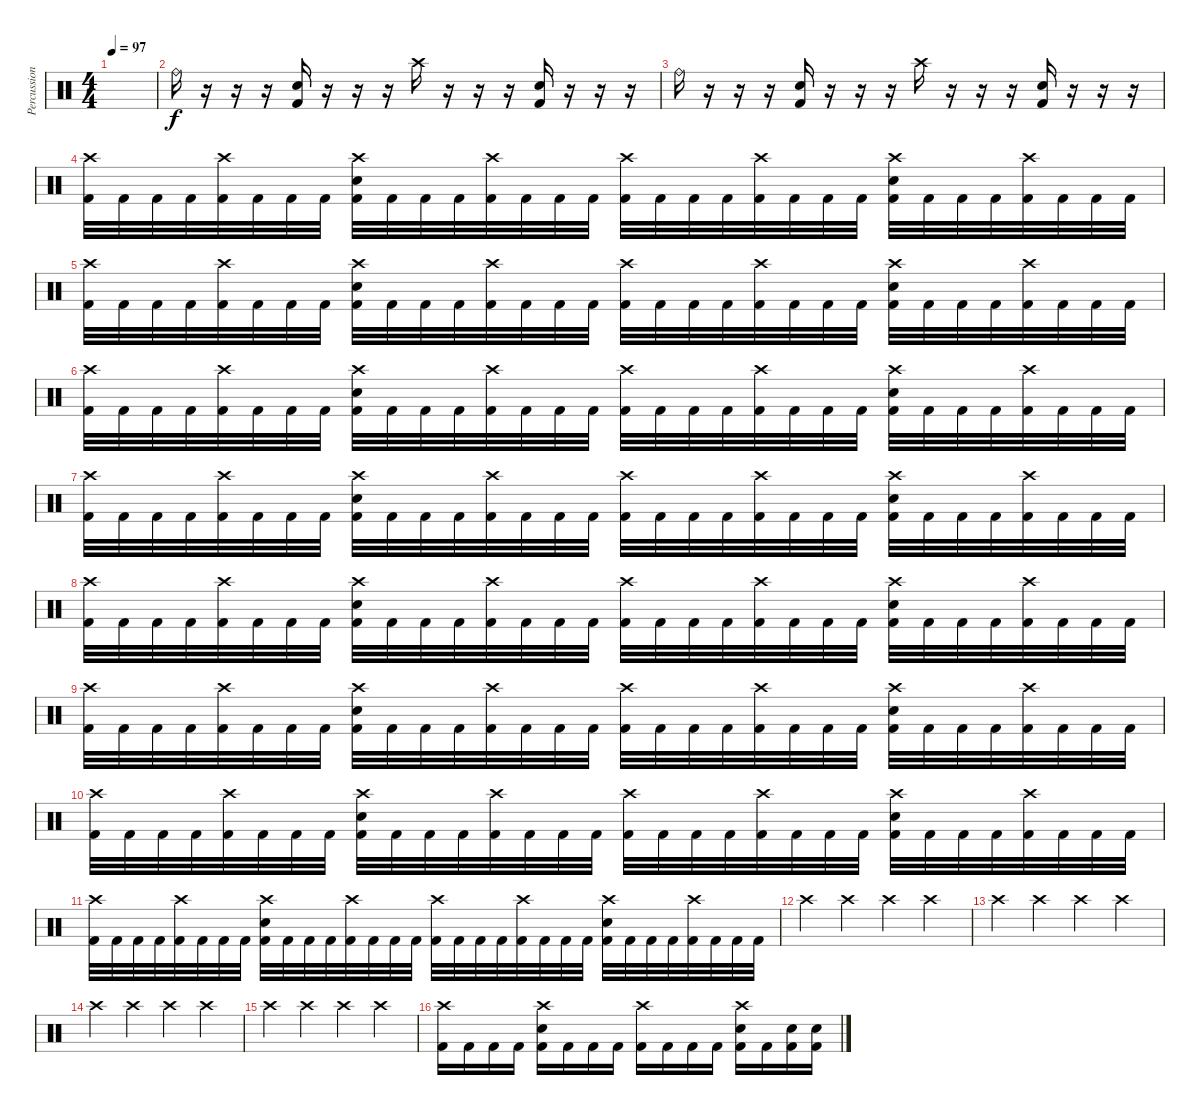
\track ("Percussion" "Percussion") {instrument percussion}
\staff {score}
\articulation defaults
\ts (4 4)
\tempo 97
\clef neutral
\ks c
|
"Ride (bell)".16 r.16 r.16 r.16 ("Snare (hit) 2" "Kick (hit) 2").16 r.16 r.16 r.16 "Crash high (hit)".16 r.16 r.16 r.16 ("Snare (hit) 2" "Kick (hit) 2").16 r.16 r.16 r.16 |
"Ride (bell)".16 r.16 r.16 r.16 ("Snare (hit) 2" "Kick (hit) 2").16 r.16 r.16 r.16 "Crash high (hit)".16 r.16 r.16 r.16 ("Snare (hit) 2" "Kick (hit) 2").16 r.16 r.16 r.16 |
("Crash high (hit)" "Kick (hit) 2").32 "Kick (hit) 2".32 "Kick (hit) 2".32 "Kick (hit) 2".32 ("Crash high (hit)" "Kick (hit) 2").32 "Kick (hit) 2".32 "Kick (hit) 2".32 "Kick (hit) 2".32 ("Crash high (hit)" "Snare (hit) 2" "Kick (hit) 2").32 "Kick (hit) 2".32 "Kick (hit) 2".32 "Kick (hit) 2".32 ("Crash high (hit)" "Kick (hit) 2").32 "Kick (hit) 2".32 "Kick (hit) 2".32 "Kick (hit) 2".32 ("Crash high (hit)" "Kick (hit) 2").32 "Kick (hit) 2".32 "Kick (hit) 2".32 "Kick (hit) 2".32 ("Crash high (hit)" "Kick (hit) 2").32 "Kick (hit) 2".32 "Kick (hit) 2".32 "Kick (hit) 2".32 ("Crash high (hit)" "Snare (hit) 2" "Kick (hit) 2").32 "Kick (hit) 2".32 "Kick (hit) 2".32 "Kick (hit) 2".32 ("Crash high (hit)" "Kick (hit) 2").32 "Kick (hit) 2".32 "Kick (hit) 2".32 "Kick (hit) 2".32 |
("Crash high (hit)" "Kick (hit) 2").32 "Kick (hit) 2".32 "Kick (hit) 2".32 "Kick (hit) 2".32 ("Crash high (hit)" "Kick (hit) 2").32 "Kick (hit) 2".32 "Kick (hit) 2".32 "Kick (hit) 2".32 ("Crash high (hit)" "Snare (hit) 2" "Kick (hit) 2").32 "Kick (hit) 2".32 "Kick (hit) 2".32 "Kick (hit) 2".32 ("Crash high (hit)" "Kick (hit) 2").32 "Kick (hit) 2".32 "Kick (hit) 2".32 "Kick (hit) 2".32 ("Crash high (hit)" "Kick (hit) 2").32 "Kick (hit) 2".32 "Kick (hit) 2".32 "Kick (hit) 2".32 ("Crash high (hit)" "Kick (hit) 2").32 "Kick (hit) 2".32 "Kick (hit) 2".32 "Kick (hit) 2".32 ("Crash high (hit)" "Snare (hit) 2" "Kick (hit) 2").32 "Kick (hit) 2".32 "Kick (hit) 2".32 "Kick (hit) 2".32 ("Crash high (hit)" "Kick (hit) 2").32 "Kick (hit) 2".32 "Kick (hit) 2".32 "Kick (hit) 2".32 |
("Crash high (hit)" "Kick (hit) 2").32 "Kick (hit) 2".32 "Kick (hit) 2".32 "Kick (hit) 2".32 ("Crash high (hit)" "Kick (hit) 2").32 "Kick (hit) 2".32 "Kick (hit) 2".32 "Kick (hit) 2".32 ("Crash high (hit)" "Snare (hit) 2" "Kick (hit) 2").32 "Kick (hit) 2".32 "Kick (hit) 2".32 "Kick (hit) 2".32 ("Crash high (hit)" "Kick (hit) 2").32 "Kick (hit) 2".32 "Kick (hit) 2".32 "Kick (hit) 2".32 ("Crash high (hit)" "Kick (hit) 2").32 "Kick (hit) 2".32 "Kick (hit) 2".32 "Kick (hit) 2".32 ("Crash high (hit)" "Kick (hit) 2").32 "Kick (hit) 2".32 "Kick (hit) 2".32 "Kick (hit) 2".32 ("Crash high (hit)" "Snare (hit) 2" "Kick (hit) 2").32 "Kick (hit) 2".32 "Kick (hit) 2".32 "Kick (hit) 2".32 ("Crash high (hit)" "Kick (hit) 2").32 "Kick (hit) 2".32 "Kick (hit) 2".32 "Kick (hit) 2".32 |
("Crash high (hit)" "Kick (hit) 2").32 "Kick (hit) 2".32 "Kick (hit) 2".32 "Kick (hit) 2".32 ("Crash high (hit)" "Kick (hit) 2").32 "Kick (hit) 2".32 "Kick (hit) 2".32 "Kick (hit) 2".32 ("Crash high (hit)" "Snare (hit) 2" "Kick (hit) 2").32 "Kick (hit) 2".32 "Kick (hit) 2".32 "Kick (hit) 2".32 ("Crash high (hit)" "Kick (hit) 2").32 "Kick (hit) 2".32 "Kick (hit) 2".32 "Kick (hit) 2".32 ("Crash high (hit)" "Kick (hit) 2").32 "Kick (hit) 2".32 "Kick (hit) 2".32 "Kick (hit) 2".32 ("Crash high (hit)" "Kick (hit) 2").32 "Kick (hit) 2".32 "Kick (hit) 2".32 "Kick (hit) 2".32 ("Crash high (hit)" "Snare (hit) 2" "Kick (hit) 2").32 "Kick (hit) 2".32 "Kick (hit) 2".32 "Kick (hit) 2".32 ("Crash high (hit)" "Kick (hit) 2").32 "Kick (hit) 2".32 "Kick (hit) 2".32 "Kick (hit) 2".32 |
("Crash high (hit)" "Kick (hit) 2").32 "Kick (hit) 2".32 "Kick (hit) 2".32 "Kick (hit) 2".32 ("Crash high (hit)" "Kick (hit) 2").32 "Kick (hit) 2".32 "Kick (hit) 2".32 "Kick (hit) 2".32 ("Crash high (hit)" "Snare (hit) 2" "Kick (hit) 2").32 "Kick (hit) 2".32 "Kick (hit) 2".32 "Kick (hit) 2".32 ("Crash high (hit)" "Kick (hit) 2").32 "Kick (hit) 2".32 "Kick (hit) 2".32 "Kick (hit) 2".32 ("Crash high (hit)" "Kick (hit) 2").32 "Kick (hit) 2".32 "Kick (hit) 2".32 "Kick (hit) 2".32 ("Crash high (hit)" "Kick (hit) 2").32 "Kick (hit) 2".32 "Kick (hit) 2".32 "Kick (hit) 2".32 ("Crash high (hit)" "Snare (hit) 2" "Kick (hit) 2").32 "Kick (hit) 2".32 "Kick (hit) 2".32 "Kick (hit) 2".32 ("Crash high (hit)" "Kick (hit) 2").32 "Kick (hit) 2".32 "Kick (hit) 2".32 "Kick (hit) 2".32 |
("Crash high (hit)" "Kick (hit) 2").32 "Kick (hit) 2".32 "Kick (hit) 2".32 "Kick (hit) 2".32 ("Crash high (hit)" "Kick (hit) 2").32 "Kick (hit) 2".32 "Kick (hit) 2".32 "Kick (hit) 2".32 ("Crash high (hit)" "Snare (hit) 2" "Kick (hit) 2").32 "Kick (hit) 2".32 "Kick (hit) 2".32 "Kick (hit) 2".32 ("Crash high (hit)" "Kick (hit) 2").32 "Kick (hit) 2".32 "Kick (hit) 2".32 "Kick (hit) 2".32 ("Crash high (hit)" "Kick (hit) 2").32 "Kick (hit) 2".32 "Kick (hit) 2".32 "Kick (hit) 2".32 ("Crash high (hit)" "Kick (hit) 2").32 "Kick (hit) 2".32 "Kick (hit) 2".32 "Kick (hit) 2".32 ("Crash high (hit)" "Snare (hit) 2" "Kick (hit) 2").32 "Kick (hit) 2".32 "Kick (hit) 2".32 "Kick (hit) 2".32 ("Crash high (hit)" "Kick (hit) 2").32 "Kick (hit) 2".32 "Kick (hit) 2".32 "Kick (hit) 2".32 |
("Crash high (hit)" "Kick (hit) 2").32 "Kick (hit) 2".32 "Kick (hit) 2".32 "Kick (hit) 2".32 ("Crash high (hit)" "Kick (hit) 2").32 "Kick (hit) 2".32 "Kick (hit) 2".32 "Kick (hit) 2".32 ("Crash high (hit)" "Snare (hit) 2" "Kick (hit) 2").32 "Kick (hit) 2".32 "Kick (hit) 2".32 "Kick (hit) 2".32 ("Crash high (hit)" "Kick (hit) 2").32 "Kick (hit) 2".32 "Kick (hit) 2".32 "Kick (hit) 2".32 ("Crash high (hit)" "Kick (hit) 2").32 "Kick (hit) 2".32 "Kick (hit) 2".32 "Kick (hit) 2".32 ("Crash high (hit)" "Kick (hit) 2").32 "Kick (hit) 2".32 "Kick (hit) 2".32 "Kick (hit) 2".32 ("Crash high (hit)" "Snare (hit) 2" "Kick (hit) 2").32 "Kick (hit) 2".32 "Kick (hit) 2".32 "Kick (hit) 2".32 ("Crash high (hit)" "Kick (hit) 2").32 "Kick (hit) 2".32 "Kick (hit) 2".32 "Kick (hit) 2".32 |
("Crash high (hit)" "Kick (hit) 2").32 "Kick (hit) 2".32 "Kick (hit) 2".32 "Kick (hit) 2".32 ("Crash high (hit)" "Kick (hit) 2").32 "Kick (hit) 2".32 "Kick (hit) 2".32 "Kick (hit) 2".32 ("Crash high (hit)" "Snare (hit) 2" "Kick (hit) 2").32 "Kick (hit) 2".32 "Kick (hit) 2".32 "Kick (hit) 2".32 ("Crash high (hit)" "Kick (hit) 2").32 "Kick (hit) 2".32 "Kick (hit) 2".32 "Kick (hit) 2".32 ("Crash high (hit)" "Kick (hit) 2").32 "Kick (hit) 2".32 "Kick (hit) 2".32 "Kick (hit) 2".32 ("Crash high (hit)" "Kick (hit) 2").32 "Kick (hit) 2".32 "Kick (hit) 2".32 "Kick (hit) 2".32 ("Crash high (hit)" "Snare (hit) 2" "Kick (hit) 2").32 "Kick (hit) 2".32 "Kick (hit) 2".32 "Kick (hit) 2".32 ("Crash high (hit)" "Kick (hit) 2").32 "Kick (hit) 2".32 "Kick (hit) 2".32 "Kick (hit) 2".32 |
"Crash high (hit)".4 "Crash high (hit)".4 "Crash high (hit)".4 "Crash high (hit)".4 |
"Crash high (hit)".4 "Crash high (hit)".4 "Crash high (hit)".4 "Crash high (hit)".4 |
"Crash high (hit)".4 "Crash high (hit)".4 "Crash high (hit)".4 "Crash high (hit)".4 |
"Crash high (hit)".4 "Crash high (hit)".4 "Crash high (hit)".4 "Crash high (hit)".4 |
("Crash high (hit)" "Kick (hit) 2").16 "Kick (hit) 2".16 "Kick (hit) 2".16 "Kick (hit) 2".16 ("Crash high (hit)" "Snare (hit) 2" "Kick (hit) 2").16 "Kick (hit) 2".16 "Kick (hit) 2".16 "Kick (hit) 2".16 ("Crash high (hit)" "Kick (hit) 2").16 "Kick (hit) 2".16 "Kick (hit) 2".16 "Kick (hit) 2".16 ("Crash high (hit)" "Snare (hit) 2" "Kick (hit) 2").16 "Kick (hit) 2".16 ("Snare (hit) 2" "Kick (hit) 2").16 ("Snare (hit) 2" "Kick (hit) 2").16
